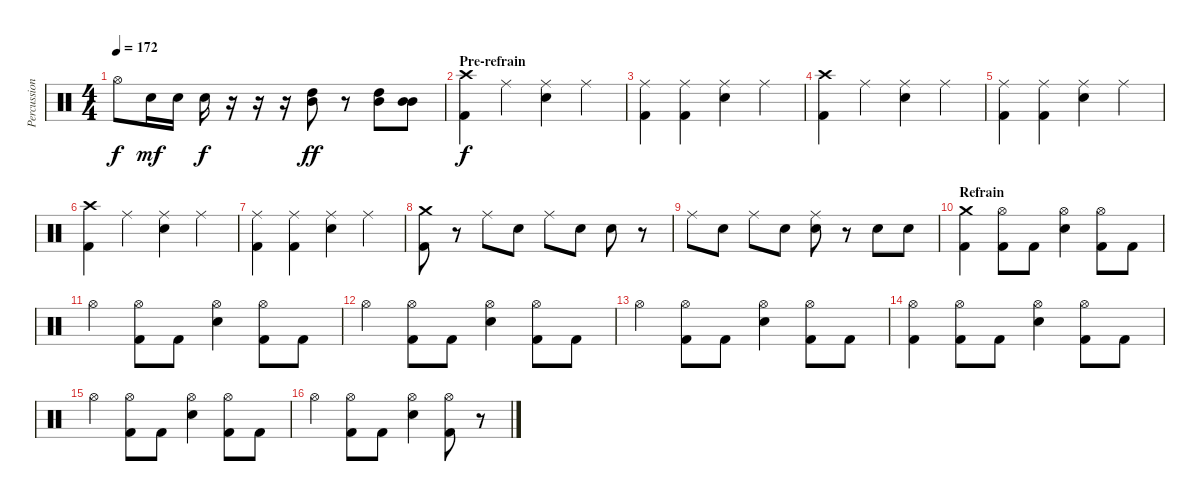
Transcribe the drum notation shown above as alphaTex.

\track ("Percussions" "Percussion") {instrument percussion}
\staff {score}
\articulation defaults
\ts (4 4)
\tempo 172
\clef neutral
\ks c "Hi-Hat (open)".8{dy f} "Snare (hit) 2".16{dy mf} "Snare (hit) 2".16 "Snare (hit) 2".16{dy f}
r.16 r.16 r.16 ("High Tom (hit)" "Mid Tom (hit)").8{dy ff} r.8 ("High Tom (hit)" "Mid Tom (hit)").8 ("Mid Tom (hit)" "Mid Tom (hit)").8 |
\section ("" "Pre-refrain")
("Crash high (hit)" "Kick (hit) 2").4{dy f} "Ride (middle)".4 ("Ride (middle)" "Snare (hit) 2").4 "Ride (middle)".4 |
("Ride (middle)" "Kick (hit) 2").4 ("Ride (middle)" "Kick (hit) 2").4 ("Ride (middle)" "Snare (hit) 2").4 "Ride (middle)".4 |
("Crash high (hit)" "Kick (hit) 2").4 "Ride (middle)".4 ("Ride (middle)" "Snare (hit) 2").4 "Ride (middle)".4 |
("Ride (middle)" "Kick (hit) 2").4 ("Ride (middle)" "Kick (hit) 2").4 ("Ride (middle)" "Snare (hit) 2").4 "Ride (middle)".4 |
("Crash high (hit)" "Kick (hit) 2").4 "Ride (middle)".4 ("Ride (middle)" "Snare (hit) 2").4 "Ride (middle)".4 |
("Ride (middle)" "Kick (hit) 2").4 ("Ride (middle)" "Kick (hit) 2").4 ("Ride (middle)" "Snare (hit) 2").4 "Ride (middle)".4 |
("Crash medium (hit)" "Kick (hit) 2").8 r.8 "Ride (middle)".8 "Snare (hit) 2".8 "Ride (middle)".8 "Snare (hit) 2".8 "Snare (hit) 2".8 r.8 |
"Ride (middle)".8 "Snare (hit) 2".8 "Ride (middle)".8 "Snare (hit) 2".8 ("Ride (middle)" "Snare (hit) 2").8 r.8 "Snare (hit) 2".8 "Snare (hit) 2".8 |
\section ("" "Refrain")
("Crash medium (hit)" "Kick (hit) 2").4 ("Hi-Hat (open)" "Kick (hit) 2").8 "Kick (hit) 2".8 ("Hi-Hat (open)" "Snare (hit) 2").4 ("Hi-Hat (open)" "Kick (hit) 2").8 "Kick (hit) 2".8 |
"Hi-Hat (open)".4 ("Hi-Hat (open)" "Kick (hit) 2").8 "Kick (hit) 2".8 ("Hi-Hat (open)" "Snare (hit) 2").4 ("Hi-Hat (open)" "Kick (hit) 2").8 "Kick (hit) 2".8 |
"Hi-Hat (open)".4 ("Hi-Hat (open)" "Kick (hit) 2").8 "Kick (hit) 2".8 ("Hi-Hat (open)" "Snare (hit) 2").4 ("Hi-Hat (open)" "Kick (hit) 2").8 "Kick (hit) 2".8 |
"Hi-Hat (open)".4 ("Hi-Hat (open)" "Kick (hit) 2").8 "Kick (hit) 2".8 ("Hi-Hat (open)" "Snare (hit) 2").4 ("Hi-Hat (open)" "Kick (hit) 2").8 "Kick (hit) 2".8 |
("Hi-Hat (open)" "Kick (hit) 2").4 ("Hi-Hat (open)" "Kick (hit) 2").8 "Kick (hit) 2".8 ("Hi-Hat (open)" "Snare (hit) 2").4 ("Hi-Hat (open)" "Kick (hit) 2").8 "Kick (hit) 2".8 |
"Hi-Hat (open)".4 ("Hi-Hat (open)" "Kick (hit) 2").8 "Kick (hit) 2".8 ("Hi-Hat (open)" "Snare (hit) 2").4 ("Hi-Hat (open)" "Kick (hit) 2").8 "Kick (hit) 2".8 |
"Hi-Hat (open)".4 ("Hi-Hat (open)" "Kick (hit) 2").8 "Kick (hit) 2".8 ("Hi-Hat (open)" "Snare (hit) 2").4 ("Hi-Hat (open)" "Kick (hit) 2").8 r.8
